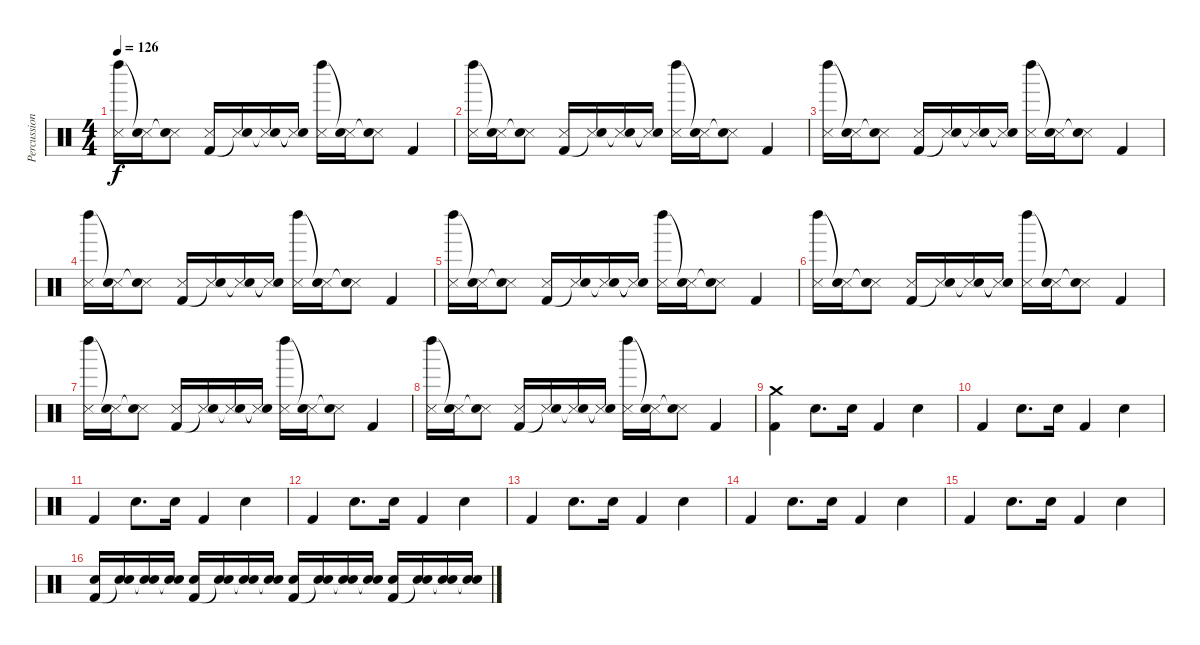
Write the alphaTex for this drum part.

\track ("Percussion" "Percussion") {instrument percussion}
\staff {score}
\articulation defaults
\ts (4 4)
\tempo 126
\clef neutral
\ks c
("Metronome (hit)" "Left Maraca (hit)").16{dy f} ("Metronome (hit)" "Snare (hit)"{t}).16 ("Metronome (hit)" "Snare (hit)"{t}).8 ("Metronome (hit)" "Kick (hit) 2").16 ("Metronome (hit)" "Snare (hit)"{t}).16 ("Metronome (hit)" "Snare (hit)"{t}).16 ("Metronome (hit)"{t} "Snare (hit)"{t}).16 ("Metronome (hit)" "Left Maraca (hit)").16 ("Metronome (hit)" "Snare (hit)"{t}).16 ("Metronome (hit)" "Snare (hit)"{t}).8 "Kick (hit) 2".4 |
("Metronome (hit)" "Left Maraca (hit)").16 ("Metronome (hit)" "Snare (hit)"{t}).16 ("Metronome (hit)" "Snare (hit)"{t}).8 ("Metronome (hit)" "Kick (hit) 2").16 ("Metronome (hit)" "Snare (hit)"{t}).16 ("Metronome (hit)" "Snare (hit)"{t}).16 ("Metronome (hit)"{t} "Snare (hit)"{t}).16 ("Metronome (hit)" "Left Maraca (hit)").16 ("Metronome (hit)" "Snare (hit)"{t}).16 ("Metronome (hit)" "Snare (hit)"{t}).8 "Kick (hit) 2".4 |
("Metronome (hit)" "Left Maraca (hit)").16 ("Metronome (hit)" "Snare (hit)"{t}).16 ("Metronome (hit)" "Snare (hit)"{t}).8 ("Metronome (hit)" "Kick (hit) 2").16 ("Metronome (hit)" "Snare (hit)"{t}).16 ("Metronome (hit)" "Snare (hit)"{t}).16 ("Metronome (hit)"{t} "Snare (hit)"{t}).16 ("Metronome (hit)" "Left Maraca (hit)").16 ("Metronome (hit)" "Snare (hit)"{t}).16 ("Metronome (hit)" "Snare (hit)"{t}).8 "Kick (hit) 2".4 |
("Metronome (hit)" "Left Maraca (hit)").16 ("Metronome (hit)" "Snare (hit)"{t}).16 ("Metronome (hit)" "Snare (hit)"{t}).8 ("Metronome (hit)" "Kick (hit) 2").16 ("Metronome (hit)" "Snare (hit)"{t}).16 ("Metronome (hit)" "Snare (hit)"{t}).16 ("Metronome (hit)"{t} "Snare (hit)"{t}).16 ("Metronome (hit)" "Left Maraca (hit)").16 ("Metronome (hit)" "Snare (hit)"{t}).16 ("Metronome (hit)" "Snare (hit)"{t}).8 "Kick (hit) 2".4 |
("Metronome (hit)" "Left Maraca (hit)").16 ("Metronome (hit)" "Snare (hit)"{t}).16 ("Metronome (hit)" "Snare (hit)"{t}).8 ("Metronome (hit)" "Kick (hit) 2").16 ("Metronome (hit)" "Snare (hit)"{t}).16 ("Metronome (hit)" "Snare (hit)"{t}).16 ("Metronome (hit)"{t} "Snare (hit)"{t}).16 ("Metronome (hit)" "Left Maraca (hit)").16 ("Metronome (hit)" "Snare (hit)"{t}).16 ("Metronome (hit)" "Snare (hit)"{t}).8 "Kick (hit) 2".4 |
("Metronome (hit)" "Left Maraca (hit)").16 ("Metronome (hit)" "Snare (hit)"{t}).16 ("Metronome (hit)" "Snare (hit)"{t}).8 ("Metronome (hit)" "Kick (hit) 2").16 ("Metronome (hit)" "Snare (hit)"{t}).16 ("Metronome (hit)" "Snare (hit)"{t}).16 ("Metronome (hit)"{t} "Snare (hit)"{t}).16 ("Metronome (hit)" "Left Maraca (hit)").16 ("Metronome (hit)" "Snare (hit)"{t}).16 ("Metronome (hit)" "Snare (hit)"{t}).8 "Kick (hit) 2".4 |
("Metronome (hit)" "Left Maraca (hit)").16 ("Metronome (hit)" "Snare (hit)"{t}).16 ("Metronome (hit)" "Snare (hit)"{t}).8 ("Metronome (hit)" "Kick (hit) 2").16 ("Metronome (hit)" "Snare (hit)"{t}).16 ("Metronome (hit)" "Snare (hit)"{t}).16 ("Metronome (hit)"{t} "Snare (hit)"{t}).16 ("Metronome (hit)" "Left Maraca (hit)").16 ("Metronome (hit)" "Snare (hit)"{t}).16 ("Metronome (hit)" "Snare (hit)"{t}).8 "Kick (hit) 2".4 |
("Metronome (hit)" "Left Maraca (hit)").16 ("Metronome (hit)" "Snare (hit)"{t}).16 ("Metronome (hit)" "Snare (hit)"{t}).8 ("Metronome (hit)" "Kick (hit) 2").16 ("Metronome (hit)" "Snare (hit)"{t}).16 ("Metronome (hit)" "Snare (hit)"{t}).16 ("Metronome (hit)"{t} "Snare (hit)"{t}).16 ("Metronome (hit)" "Left Maraca (hit)").16 ("Metronome (hit)" "Snare (hit)"{t}).16 ("Metronome (hit)" "Snare (hit)"{t}).8 "Kick (hit) 2".4 |
("Crash medium (hit)" "Kick (hit) 2").4 "Electric Snare (hit)".8{d} "Electric Snare (hit)".16 "Kick (hit) 2".4 "Electric Snare (hit)".4 |
"Kick (hit) 2".4 "Electric Snare (hit)".8{d} "Electric Snare (hit)".16 "Kick (hit) 2".4 "Electric Snare (hit)".4 |
"Kick (hit) 2".4 "Electric Snare (hit)".8{d} "Electric Snare (hit)".16 "Kick (hit) 2".4 "Electric Snare (hit)".4 |
"Kick (hit) 2".4 "Electric Snare (hit)".8{d} "Electric Snare (hit)".16 "Kick (hit) 2".4 "Electric Snare (hit)".4 |
"Kick (hit) 2".4 "Electric Snare (hit)".8{d} "Electric Snare (hit)".16 "Kick (hit) 2".4 "Electric Snare (hit)".4 |
"Kick (hit) 2".4 "Electric Snare (hit)".8{d} "Electric Snare (hit)".16 "Kick (hit) 2".4 "Electric Snare (hit)".4 |
"Kick (hit) 2".4 "Electric Snare (hit)".8{d} "Electric Snare (hit)".16 "Kick (hit) 2".4 "Electric Snare (hit)".4 |
("Electric Snare (hit)" "Kick (hit) 2").16 ("Electric Snare (hit)" "Snare (hit)"{t}).16 ("Electric Snare (hit)" "Snare (hit)"{t}).16 ("Electric Snare (hit)" "Snare (hit)"{t}).16 ("Electric Snare (hit)" "Kick (hit) 2").16 ("Electric Snare (hit)" "Snare (hit)"{t}).16 ("Electric Snare (hit)" "Snare (hit)"{t}).16 ("Electric Snare (hit)" "Snare (hit)"{t}).16 ("Electric Snare (hit)" "Kick (hit) 2").16 ("Electric Snare (hit)" "Snare (hit)"{t}).16 ("Electric Snare (hit)" "Snare (hit)"{t}).16 ("Electric Snare (hit)" "Snare (hit)"{t}).16 ("Electric Snare (hit)" "Kick (hit) 2").16 ("Electric Snare (hit)" "Snare (hit)"{t}).16 ("Electric Snare (hit)" "Snare (hit)"{t}).16 ("Electric Snare (hit)" "Snare (hit)"{t}).16
